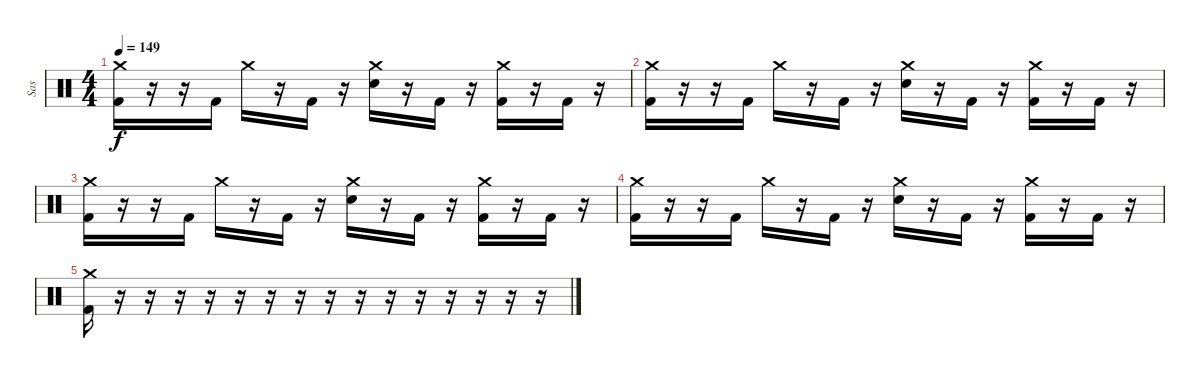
\track ("Sas" "Sas") {instrument percussion}
\staff {score}
\articulation defaults
\ts (4 4)
\tempo 149
\clef neutral
\ks c
("Crash medium (hit)" "Kick (hit) 2").16{dy f} r.16 r.16 "Kick (hit) 2".16 "Crash medium (hit)".16 r.16 "Kick (hit) 2".16 r.16 ("Crash medium (hit)" "Snare (hit) 2").16 r.16 "Kick (hit) 2".16 r.16 ("Crash medium (hit)" "Kick (hit) 2").16 r.16 "Kick (hit) 2".16 r.16 |
("Crash medium (hit)" "Kick (hit) 2").16 r.16 r.16 "Kick (hit) 2".16 "Crash medium (hit)".16 r.16 "Kick (hit) 2".16 r.16 ("Crash medium (hit)" "Snare (hit) 2").16 r.16 "Kick (hit) 2".16 r.16 ("Crash medium (hit)" "Kick (hit) 2").16 r.16 "Kick (hit) 2".16 r.16 |
("Crash medium (hit)" "Kick (hit) 2").16 r.16 r.16 "Kick (hit) 2".16 "Crash medium (hit)".16 r.16 "Kick (hit) 2".16 r.16 ("Crash medium (hit)" "Snare (hit) 2").16 r.16 "Kick (hit) 2".16 r.16 ("Crash medium (hit)" "Kick (hit) 2").16 r.16 "Kick (hit) 2".16 r.16 |
("Crash medium (hit)" "Kick (hit) 2").16 r.16 r.16 "Kick (hit) 2".16 "Crash medium (hit)".16 r.16 "Kick (hit) 2".16 r.16 ("Crash medium (hit)" "Snare (hit) 2").16 r.16 "Kick (hit) 2".16 r.16 ("Crash medium (hit)" "Kick (hit) 2").16 r.16 "Kick (hit) 2".16 r.16 |
("Crash medium (hit)" "Kick (hit) 2").16 r.16 r.16 r.16 r.16 r.16 r.16 r.16 r.16 r.16 r.16 r.16 r.16 r.16 r.16 r.16
